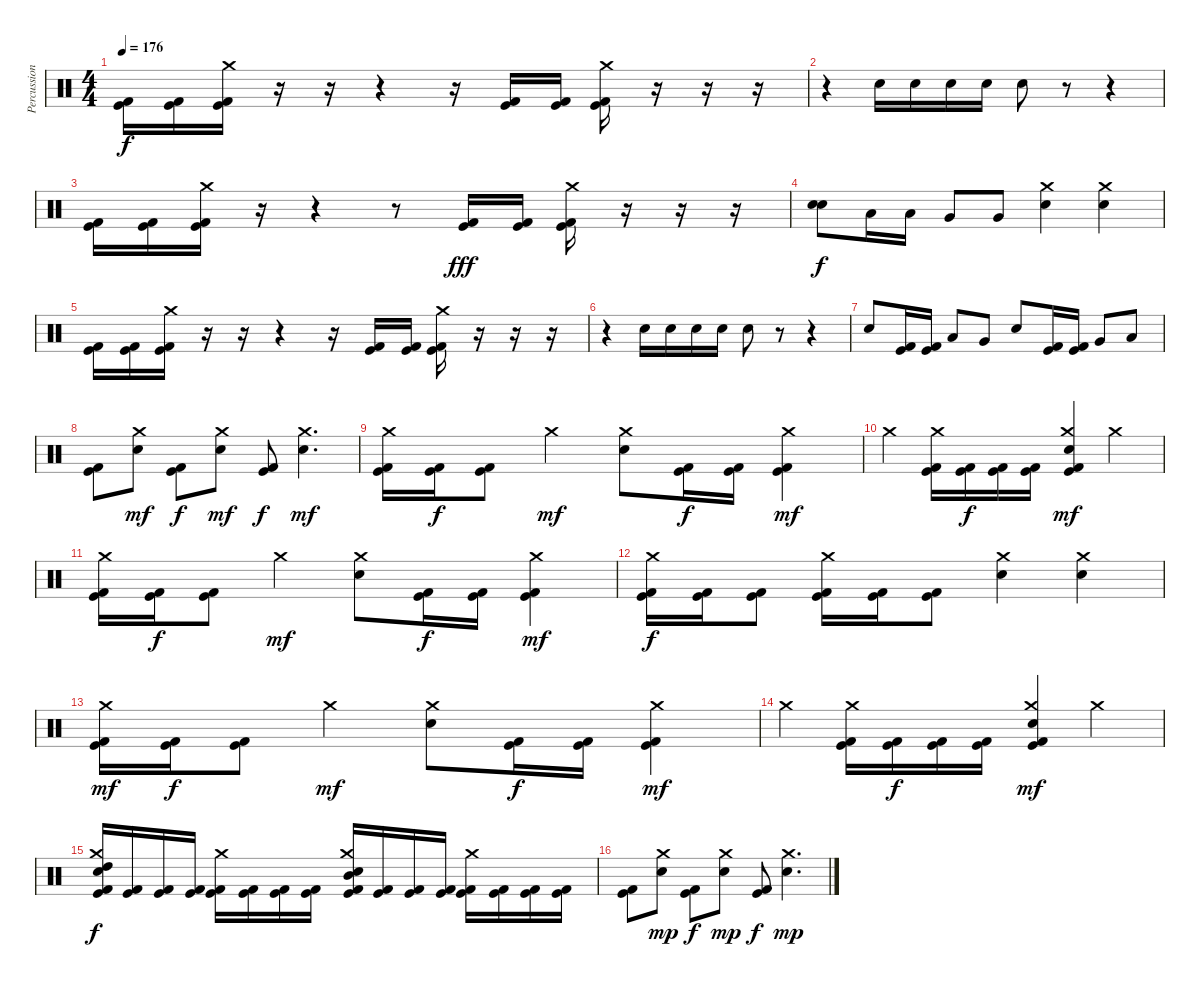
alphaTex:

\track ("Percussions" "Percussion") {instrument percussion}
\staff {score}
\articulation defaults
\ts (4 4)
\tempo 176
\clef neutral
\ks c
("Kick (hit)" "Kick (hit) 2").16{dy f} ("Kick (hit)" "Kick (hit) 2").16 ("Crash medium (hit)" "Kick (hit)" "Kick (hit) 2").16 r.16 r.16{volume 0} r.4 r.16 ("Kick (hit)" "Kick (hit) 2").16{volume 12} ("Kick (hit)" "Kick (hit) 2").16 ("Crash medium (hit)" "Kick (hit)" "Kick (hit) 2").16 r.16 r.16{volume 0} r.16 |
r.4 "Electric Snare (hit)".16{volume 13} "Electric Snare (hit)".16 "Electric Snare (hit)".16 "Electric Snare (hit)".16 "Electric Snare (hit)".8 r.8 r.4 |
("Kick (hit)" "Kick (hit) 2").16 ("Kick (hit)" "Kick (hit) 2").16 ("Crash medium (hit)" "Kick (hit)" "Kick (hit) 2").16 r.16 r.4{volume 0} r.8 ("Kick (hit)" "Kick (hit) 2").16{dy fff volume 11} ("Kick (hit)" "Kick (hit) 2").16 ("Crash medium (hit)" "Kick (hit)" "Kick (hit) 2").16 r.16 r.16 r.16 |
("Electric Snare (hit)" "Electric Snare (hit)").8{bd 240 dy f volume 13} "Low Tom (hit)".16 "Low Tom (hit)".16 "Very Low Tom (hit)".8 "Very Low Tom (hit)".8 ("Crash medium (hit)" "Electric Snare (hit)").4 ("Crash medium (hit)" "Electric Snare (hit)").4 |
("Kick (hit)" "Kick (hit) 2").16 ("Kick (hit)" "Kick (hit) 2").16 ("Crash medium (hit)" "Kick (hit)" "Kick (hit) 2").16 r.16 r.16{volume 0} r.4 r.16 ("Kick (hit)" "Kick (hit) 2").16{volume 12} ("Kick (hit)" "Kick (hit) 2").16 ("Crash medium (hit)" "Kick (hit)" "Kick (hit) 2").16 r.16 r.16{volume 0} r.16 |
r.4 "Electric Snare (hit)".16{volume 13} "Electric Snare (hit)".16 "Electric Snare (hit)".16 "Electric Snare (hit)".16 "Electric Snare (hit)".8 r.8 r.4 |
"Electric Snare (hit)".8 ("Kick (hit)" "Kick (hit) 2").16 ("Kick (hit)" "Kick (hit) 2").16 "Low Tom (hit)".8 "Very Low Tom (hit)".8 "Electric Snare (hit)".8 ("Kick (hit)" "Kick (hit) 2").16 ("Kick (hit)" "Kick (hit) 2").16 "Very Low Tom (hit)".8 "Low Floor Tom (hit)".8 |
("Kick (hit)" "Kick (hit) 2").8 ("Crash medium (hit)" "Electric Snare (hit)").8{dy mf} ("Kick (hit)" "Kick (hit) 2").8{dy f} ("Crash medium (hit)" "Electric Snare (hit)").8{dy mf} ("Kick (hit)" "Kick (hit) 2").8{dy f} ("Crash medium (hit)" "Electric Snare (hit)").4{d dy mf} |
("Crash medium (hit)" "Kick (hit)" "Kick (hit) 2").16 ("Kick (hit)" "Kick (hit) 2").16{dy f} ("Kick (hit)" "Kick (hit) 2").8 "Crash medium (hit)".4{dy mf} ("Crash medium (hit)" "Electric Snare (hit)").8 ("Kick (hit)" "Kick (hit) 2").16{dy f} ("Kick (hit)" "Kick (hit) 2").16 ("Crash medium (hit)" "Kick (hit)" "Kick (hit) 2").4{dy mf} |
"Crash medium (hit)".4 ("Crash medium (hit)" "Kick (hit)" "Kick (hit) 2").16 ("Kick (hit)" "Kick (hit) 2").16{dy f} ("Kick (hit)" "Kick (hit) 2").16 ("Kick (hit)" "Kick (hit) 2").16 ("Crash medium (hit)" "Electric Snare (hit)" "Kick (hit)" "Kick (hit) 2").4{dy mf} "Crash medium (hit)".4 |
("Crash medium (hit)" "Kick (hit)" "Kick (hit) 2").16 ("Kick (hit)" "Kick (hit) 2").16{dy f} ("Kick (hit)" "Kick (hit) 2").8 "Crash medium (hit)".4{dy mf} ("Crash medium (hit)" "Electric Snare (hit)").8 ("Kick (hit)" "Kick (hit) 2").16{dy f} ("Kick (hit)" "Kick (hit) 2").16 ("Crash medium (hit)" "Kick (hit)" "Kick (hit) 2").4{dy mf} |
("Crash medium (hit)" "Kick (hit)" "Kick (hit) 2").16{dy f} ("Kick (hit)" "Kick (hit) 2").16 ("Kick (hit)" "Kick (hit) 2").8 ("Crash medium (hit)" "Kick (hit)" "Kick (hit) 2").16 ("Kick (hit)" "Kick (hit) 2").16 ("Kick (hit)" "Kick (hit) 2").8 ("Crash medium (hit)" "Electric Snare (hit)").4 ("Crash medium (hit)" "Electric Snare (hit)").4 |
("Crash medium (hit)" "Kick (hit)" "Kick (hit) 2").16{dy mf} ("Kick (hit)" "Kick (hit) 2").16{dy f} ("Kick (hit)" "Kick (hit) 2").8 "Crash medium (hit)".4{dy mf} ("Crash medium (hit)" "Electric Snare (hit)").8 ("Kick (hit)" "Kick (hit) 2").16{dy f} ("Kick (hit)" "Kick (hit) 2").16 ("Crash medium (hit)" "Kick (hit)" "Kick (hit) 2").4{dy mf} |
"Crash medium (hit)".4 ("Crash medium (hit)" "Kick (hit)" "Kick (hit) 2").16 ("Kick (hit)" "Kick (hit) 2").16{dy f} ("Kick (hit)" "Kick (hit) 2").16 ("Kick (hit)" "Kick (hit) 2").16 ("Crash medium (hit)" "Electric Snare (hit)" "Kick (hit)" "Kick (hit) 2").4{dy mf} "Crash medium (hit)".4 |
("Crash medium (hit)" "Electric Snare (hit)" "High Tom (hit)" "Kick (hit)" "Kick (hit) 2").16{dy f} ("Kick (hit)" "Kick (hit) 2").16 ("Kick (hit)" "Kick (hit) 2").16 ("Kick (hit)" "Kick (hit) 2").16 ("Crash medium (hit)" "Kick (hit)" "Kick (hit) 2").16 ("Kick (hit)" "Kick (hit) 2").16 ("Kick (hit)" "Kick (hit) 2").16 ("Kick (hit)" "Kick (hit) 2").16 ("Crash medium (hit)" "Electric Snare (hit)" "Mid Tom (hit)" "Kick (hit)" "Kick (hit) 2").16 ("Kick (hit)" "Kick (hit) 2").16 ("Kick (hit)" "Kick (hit) 2").16 ("Kick (hit)" "Kick (hit) 2").16 ("Crash medium (hit)" "Kick (hit)" "Kick (hit) 2").16 ("Kick (hit)" "Kick (hit) 2").16 ("Kick (hit)" "Kick (hit) 2").16 ("Kick (hit)" "Kick (hit) 2").16 |
("Kick (hit)" "Kick (hit) 2").8 ("Crash medium (hit)" "Electric Snare (hit)").8{dy mp} ("Kick (hit)" "Kick (hit) 2").8{dy f} ("Crash medium (hit)" "Electric Snare (hit)").8{dy mp} ("Kick (hit)" "Kick (hit) 2").8{dy f} ("Crash medium (hit)" "Electric Snare (hit)").4{d dy mp}
